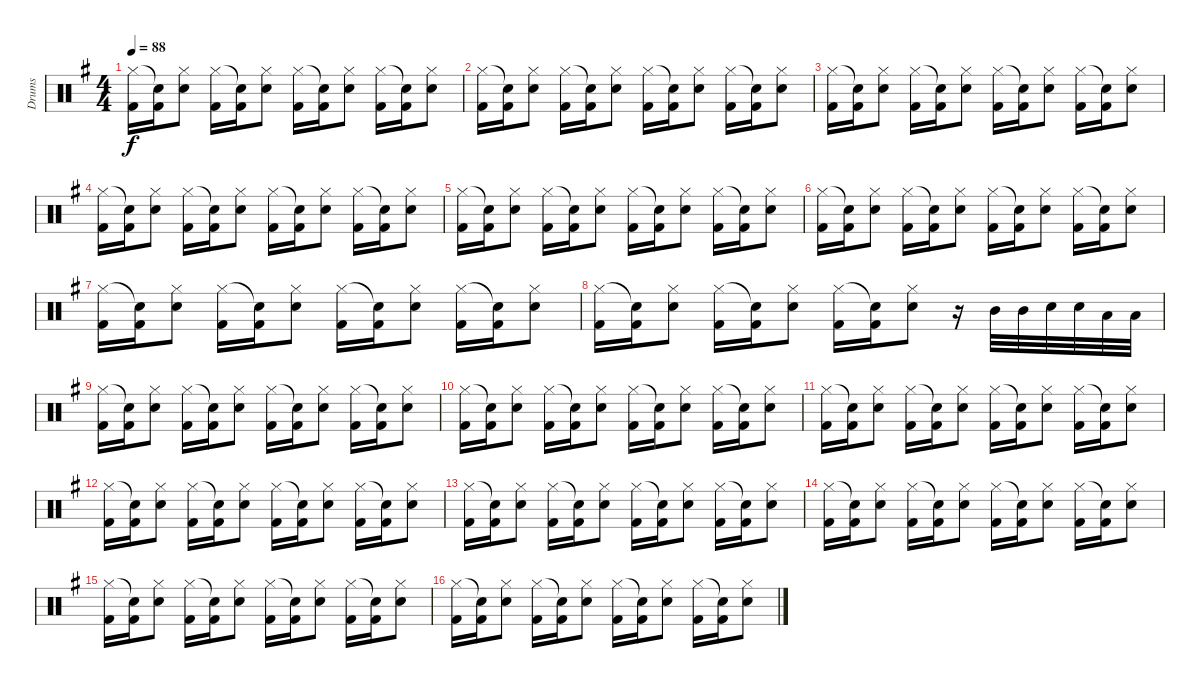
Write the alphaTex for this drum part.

\track ("Drums" "Drums") {instrument percussion}
\staff {score}
\articulation defaults
\ts (4 4)
\tempo 88
\clef neutral
\ks eminor
("Hi-Hat (closed)" "Kick (hit) 2").16{dy f} ("Snare (hit)"{t} "Kick (hit) 2").16 ("Hi-Hat (closed)" "Snare (hit) 2").8 ("Hi-Hat (closed)" "Kick (hit) 2").16 ("Snare (hit)"{t} "Kick (hit) 2").16 ("Hi-Hat (closed)" "Snare (hit) 2").8 ("Hi-Hat (closed)" "Kick (hit) 2").16 ("Snare (hit)"{t} "Kick (hit) 2").16 ("Hi-Hat (closed)" "Snare (hit) 2").8 ("Hi-Hat (closed)" "Kick (hit) 2").16 ("Snare (hit)"{t} "Kick (hit) 2").16 ("Hi-Hat (closed)" "Snare (hit) 2").8 |
("Hi-Hat (closed)" "Kick (hit) 2").16 ("Snare (hit)"{t} "Kick (hit) 2").16 ("Hi-Hat (closed)" "Snare (hit) 2").8 ("Hi-Hat (closed)" "Kick (hit) 2").16 ("Snare (hit)"{t} "Kick (hit) 2").16 ("Hi-Hat (closed)" "Snare (hit) 2").8 ("Hi-Hat (closed)" "Kick (hit) 2").16 ("Snare (hit)"{t} "Kick (hit) 2").16 ("Hi-Hat (closed)" "Snare (hit) 2").8 ("Hi-Hat (closed)" "Kick (hit) 2").16 ("Snare (hit)"{t} "Kick (hit) 2").16 ("Hi-Hat (closed)" "Snare (hit) 2").8 |
("Hi-Hat (closed)" "Kick (hit) 2").16 ("Snare (hit)"{t} "Kick (hit) 2").16 ("Hi-Hat (closed)" "Snare (hit) 2").8 ("Hi-Hat (closed)" "Kick (hit) 2").16 ("Snare (hit)"{t} "Kick (hit) 2").16 ("Hi-Hat (closed)" "Snare (hit) 2").8 ("Hi-Hat (closed)" "Kick (hit) 2").16 ("Snare (hit)"{t} "Kick (hit) 2").16 ("Hi-Hat (closed)" "Snare (hit) 2").8 ("Hi-Hat (closed)" "Kick (hit) 2").16 ("Snare (hit)"{t} "Kick (hit) 2").16 ("Hi-Hat (closed)" "Snare (hit) 2").8 |
("Hi-Hat (closed)" "Kick (hit) 2").16 ("Snare (hit)"{t} "Kick (hit) 2").16 ("Hi-Hat (closed)" "Snare (hit) 2").8 ("Hi-Hat (closed)" "Kick (hit) 2").16 ("Snare (hit)"{t} "Kick (hit) 2").16 ("Hi-Hat (closed)" "Snare (hit) 2").8 ("Hi-Hat (closed)" "Kick (hit) 2").16 ("Snare (hit)"{t} "Kick (hit) 2").16 ("Hi-Hat (closed)" "Snare (hit) 2").8 ("Hi-Hat (closed)" "Kick (hit) 2").16 ("Snare (hit)"{t} "Kick (hit) 2").16 ("Hi-Hat (closed)" "Snare (hit) 2").8 |
("Hi-Hat (closed)" "Kick (hit) 2").16 ("Snare (hit)"{t} "Kick (hit) 2").16 ("Hi-Hat (closed)" "Snare (hit) 2").8 ("Hi-Hat (closed)" "Kick (hit) 2").16 ("Snare (hit)"{t} "Kick (hit) 2").16 ("Hi-Hat (closed)" "Snare (hit) 2").8 ("Hi-Hat (closed)" "Kick (hit) 2").16 ("Snare (hit)"{t} "Kick (hit) 2").16 ("Hi-Hat (closed)" "Snare (hit) 2").8 ("Hi-Hat (closed)" "Kick (hit) 2").16 ("Snare (hit)"{t} "Kick (hit) 2").16 ("Hi-Hat (closed)" "Snare (hit) 2").8 |
("Hi-Hat (closed)" "Kick (hit) 2").16 ("Snare (hit)"{t} "Kick (hit) 2").16 ("Hi-Hat (closed)" "Snare (hit) 2").8 ("Hi-Hat (closed)" "Kick (hit) 2").16 ("Snare (hit)"{t} "Kick (hit) 2").16 ("Hi-Hat (closed)" "Snare (hit) 2").8 ("Hi-Hat (closed)" "Kick (hit) 2").16 ("Snare (hit)"{t} "Kick (hit) 2").16 ("Hi-Hat (closed)" "Snare (hit) 2").8 ("Hi-Hat (closed)" "Kick (hit) 2").16 ("Snare (hit)"{t} "Kick (hit) 2").16 ("Hi-Hat (closed)" "Snare (hit) 2").8 |
("Hi-Hat (closed)" "Kick (hit) 2").16 ("Snare (hit)"{t} "Kick (hit) 2").16 ("Hi-Hat (closed)" "Snare (hit) 2").8 ("Hi-Hat (closed)" "Kick (hit) 2").16 ("Snare (hit)"{t} "Kick (hit) 2").16 ("Hi-Hat (closed)" "Snare (hit) 2").8 ("Hi-Hat (closed)" "Kick (hit) 2").16 ("Snare (hit)"{t} "Kick (hit) 2").16 ("Hi-Hat (closed)" "Snare (hit) 2").8 ("Hi-Hat (closed)" "Kick (hit) 2").16 ("Snare (hit)"{t} "Kick (hit) 2").16 ("Hi-Hat (closed)" "Snare (hit) 2").8 |
("Hi-Hat (closed)" "Kick (hit) 2").16 ("Snare (hit)"{t} "Kick (hit) 2").16 ("Hi-Hat (closed)" "Snare (hit) 2").8 ("Hi-Hat (closed)" "Kick (hit) 2").16 ("Snare (hit)"{t} "Kick (hit) 2").16 ("Hi-Hat (closed)" "Snare (hit) 2").8 ("Hi-Hat (closed)" "Kick (hit) 2").16 ("Snare (hit)"{t} "Kick (hit) 2").16 ("Hi-Hat (closed)" "Snare (hit) 2").8 r.16 "Mid Tom (hit)".32 "Mid Tom (hit)".32 "Snare (hit) 2".32 "Snare (hit) 2".32 "Low Tom (hit)".32 "Low Tom (hit)".32 |
("Hi-Hat (closed)" "Kick (hit) 2").16 ("Snare (hit)"{t} "Kick (hit) 2").16 ("Hi-Hat (closed)" "Snare (hit) 2").8 ("Hi-Hat (closed)" "Kick (hit) 2").16 ("Snare (hit)"{t} "Kick (hit) 2").16 ("Hi-Hat (closed)" "Snare (hit) 2").8 ("Hi-Hat (closed)" "Kick (hit) 2").16 ("Snare (hit)"{t} "Kick (hit) 2").16 ("Hi-Hat (closed)" "Snare (hit) 2").8 ("Hi-Hat (closed)" "Kick (hit) 2").16 ("Snare (hit)"{t} "Kick (hit) 2").16 ("Hi-Hat (closed)" "Snare (hit) 2").8 |
("Hi-Hat (closed)" "Kick (hit) 2").16 ("Snare (hit)"{t} "Kick (hit) 2").16 ("Hi-Hat (closed)" "Snare (hit) 2").8 ("Hi-Hat (closed)" "Kick (hit) 2").16 ("Snare (hit)"{t} "Kick (hit) 2").16 ("Hi-Hat (closed)" "Snare (hit) 2").8 ("Hi-Hat (closed)" "Kick (hit) 2").16 ("Snare (hit)"{t} "Kick (hit) 2").16 ("Hi-Hat (closed)" "Snare (hit) 2").8 ("Hi-Hat (closed)" "Kick (hit) 2").16 ("Snare (hit)"{t} "Kick (hit) 2").16 ("Hi-Hat (closed)" "Snare (hit) 2").8 |
("Hi-Hat (closed)" "Kick (hit) 2").16 ("Snare (hit)"{t} "Kick (hit) 2").16 ("Hi-Hat (closed)" "Snare (hit) 2").8 ("Hi-Hat (closed)" "Kick (hit) 2").16 ("Snare (hit)"{t} "Kick (hit) 2").16 ("Hi-Hat (closed)" "Snare (hit) 2").8 ("Hi-Hat (closed)" "Kick (hit) 2").16 ("Snare (hit)"{t} "Kick (hit) 2").16 ("Hi-Hat (closed)" "Snare (hit) 2").8 ("Hi-Hat (closed)" "Kick (hit) 2").16 ("Snare (hit)"{t} "Kick (hit) 2").16 ("Hi-Hat (closed)" "Snare (hit) 2").8 |
("Hi-Hat (closed)" "Kick (hit) 2").16 ("Snare (hit)"{t} "Kick (hit) 2").16 ("Hi-Hat (closed)" "Snare (hit) 2").8 ("Hi-Hat (closed)" "Kick (hit) 2").16 ("Snare (hit)"{t} "Kick (hit) 2").16 ("Hi-Hat (closed)" "Snare (hit) 2").8 ("Hi-Hat (closed)" "Kick (hit) 2").16 ("Snare (hit)"{t} "Kick (hit) 2").16 ("Hi-Hat (closed)" "Snare (hit) 2").8 ("Hi-Hat (closed)" "Kick (hit) 2").16 ("Snare (hit)"{t} "Kick (hit) 2").16 ("Hi-Hat (closed)" "Snare (hit) 2").8 |
("Hi-Hat (closed)" "Kick (hit) 2").16 ("Snare (hit)"{t} "Kick (hit) 2").16 ("Hi-Hat (closed)" "Snare (hit) 2").8 ("Hi-Hat (closed)" "Kick (hit) 2").16 ("Snare (hit)"{t} "Kick (hit) 2").16 ("Hi-Hat (closed)" "Snare (hit) 2").8 ("Hi-Hat (closed)" "Kick (hit) 2").16 ("Snare (hit)"{t} "Kick (hit) 2").16 ("Hi-Hat (closed)" "Snare (hit) 2").8 ("Hi-Hat (closed)" "Kick (hit) 2").16 ("Snare (hit)"{t} "Kick (hit) 2").16 ("Hi-Hat (closed)" "Snare (hit) 2").8 |
("Hi-Hat (closed)" "Kick (hit) 2").16 ("Snare (hit)"{t} "Kick (hit) 2").16 ("Hi-Hat (closed)" "Snare (hit) 2").8 ("Hi-Hat (closed)" "Kick (hit) 2").16 ("Snare (hit)"{t} "Kick (hit) 2").16 ("Hi-Hat (closed)" "Snare (hit) 2").8 ("Hi-Hat (closed)" "Kick (hit) 2").16 ("Snare (hit)"{t} "Kick (hit) 2").16 ("Hi-Hat (closed)" "Snare (hit) 2").8 ("Hi-Hat (closed)" "Kick (hit) 2").16 ("Snare (hit)"{t} "Kick (hit) 2").16 ("Hi-Hat (closed)" "Snare (hit) 2").8 |
("Hi-Hat (closed)" "Kick (hit) 2").16 ("Snare (hit)"{t} "Kick (hit) 2").16 ("Hi-Hat (closed)" "Snare (hit) 2").8 ("Hi-Hat (closed)" "Kick (hit) 2").16 ("Snare (hit)"{t} "Kick (hit) 2").16 ("Hi-Hat (closed)" "Snare (hit) 2").8 ("Hi-Hat (closed)" "Kick (hit) 2").16 ("Snare (hit)"{t} "Kick (hit) 2").16 ("Hi-Hat (closed)" "Snare (hit) 2").8 ("Hi-Hat (closed)" "Kick (hit) 2").16 ("Snare (hit)"{t} "Kick (hit) 2").16 ("Hi-Hat (closed)" "Snare (hit) 2").8 |
("Hi-Hat (closed)" "Kick (hit) 2").16 ("Snare (hit)"{t} "Kick (hit) 2").16 ("Hi-Hat (closed)" "Snare (hit) 2").8 ("Hi-Hat (closed)" "Kick (hit) 2").16 ("Snare (hit)"{t} "Kick (hit) 2").16 ("Hi-Hat (closed)" "Snare (hit) 2").8 ("Hi-Hat (closed)" "Kick (hit) 2").16 ("Snare (hit)"{t} "Kick (hit) 2").16 ("Hi-Hat (closed)" "Snare (hit) 2").8 ("Hi-Hat (closed)" "Kick (hit) 2").16 ("Snare (hit)"{t} "Kick (hit) 2").16 ("Hi-Hat (closed)" "Snare (hit) 2").8
